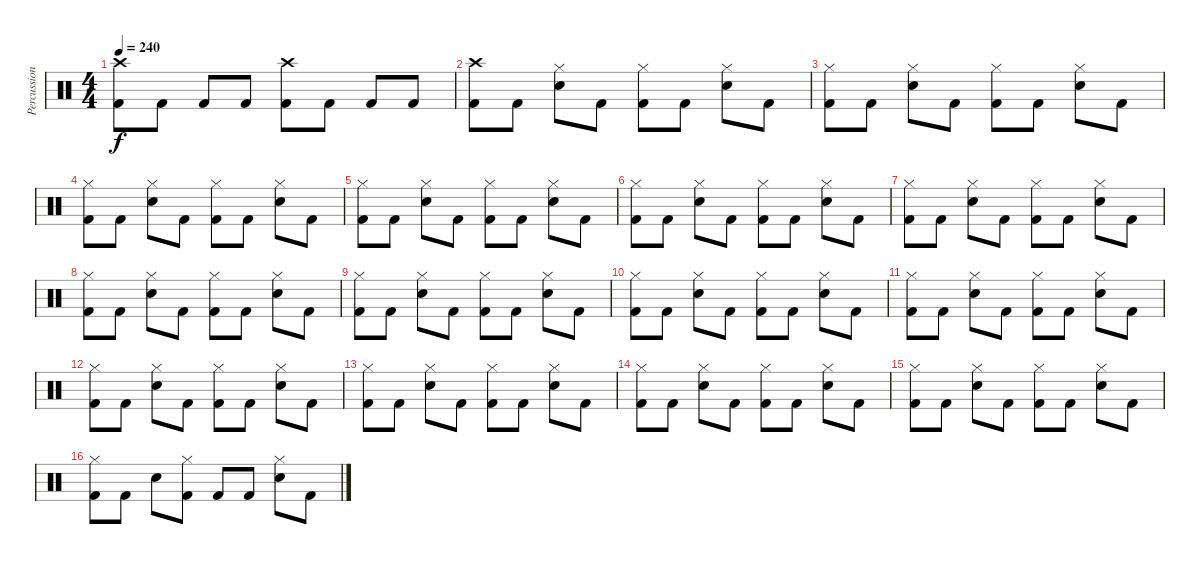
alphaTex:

\track ("Percussion" "Percussion") {instrument percussion}
\staff {score}
\articulation defaults
\ts (4 4)
\tempo 240
\clef neutral
\ks c
("Kick (hit) 2" "Crash high (hit)").8{dy f} "Kick (hit) 2".8 "Kick (hit) 2".8 "Kick (hit) 2".8 ("Kick (hit) 2" "Crash high (hit)").8 "Kick (hit) 2".8 "Kick (hit) 2".8 "Kick (hit) 2".8 |
("Kick (hit) 2" "Crash high (hit)").8 "Kick (hit) 2".8 ("Snare (hit) 2" "Hi-Hat (closed)").8 "Kick (hit) 2".8 ("Kick (hit) 2" "Hi-Hat (closed)").8 "Kick (hit) 2".8 ("Snare (hit) 2" "Hi-Hat (closed)").8 "Kick (hit) 2".8 |
("Kick (hit) 2" "Hi-Hat (closed)").8 "Kick (hit) 2".8 ("Snare (hit) 2" "Hi-Hat (closed)").8 "Kick (hit) 2".8 ("Kick (hit) 2" "Hi-Hat (closed)").8 "Kick (hit) 2".8 ("Snare (hit) 2" "Hi-Hat (closed)").8 "Kick (hit) 2".8 |
("Kick (hit) 2" "Hi-Hat (closed)").8 "Kick (hit) 2".8 ("Snare (hit) 2" "Hi-Hat (closed)").8 "Kick (hit) 2".8 ("Kick (hit) 2" "Hi-Hat (closed)").8 "Kick (hit) 2".8 ("Snare (hit) 2" "Hi-Hat (closed)").8 "Kick (hit) 2".8 |
("Kick (hit) 2" "Hi-Hat (closed)").8 "Kick (hit) 2".8 ("Snare (hit) 2" "Hi-Hat (closed)").8 "Kick (hit) 2".8 ("Kick (hit) 2" "Hi-Hat (closed)").8 "Kick (hit) 2".8 ("Snare (hit) 2" "Hi-Hat (closed)").8 "Kick (hit) 2".8 |
("Kick (hit) 2" "Hi-Hat (closed)").8 "Kick (hit) 2".8 ("Snare (hit) 2" "Hi-Hat (closed)").8 "Kick (hit) 2".8 ("Kick (hit) 2" "Hi-Hat (closed)").8 "Kick (hit) 2".8 ("Snare (hit) 2" "Hi-Hat (closed)").8 "Kick (hit) 2".8 |
("Kick (hit) 2" "Hi-Hat (closed)").8 "Kick (hit) 2".8 ("Snare (hit) 2" "Hi-Hat (closed)").8 "Kick (hit) 2".8 ("Kick (hit) 2" "Hi-Hat (closed)").8 "Kick (hit) 2".8 ("Snare (hit) 2" "Hi-Hat (closed)").8 "Kick (hit) 2".8 |
("Kick (hit) 2" "Hi-Hat (closed)").8 "Kick (hit) 2".8 ("Snare (hit) 2" "Hi-Hat (closed)").8 "Kick (hit) 2".8 ("Kick (hit) 2" "Hi-Hat (closed)").8 "Kick (hit) 2".8 ("Snare (hit) 2" "Hi-Hat (closed)").8 "Kick (hit) 2".8 |
("Kick (hit) 2" "Hi-Hat (closed)").8 "Kick (hit) 2".8 ("Snare (hit) 2" "Hi-Hat (closed)").8 "Kick (hit) 2".8 ("Kick (hit) 2" "Hi-Hat (closed)").8 "Kick (hit) 2".8 ("Snare (hit) 2" "Hi-Hat (closed)").8 "Kick (hit) 2".8 |
("Kick (hit) 2" "Hi-Hat (closed)").8 "Kick (hit) 2".8 ("Snare (hit) 2" "Hi-Hat (closed)").8 "Kick (hit) 2".8 ("Kick (hit) 2" "Hi-Hat (closed)").8 "Kick (hit) 2".8 ("Snare (hit) 2" "Hi-Hat (closed)").8 "Kick (hit) 2".8 |
("Kick (hit) 2" "Hi-Hat (closed)").8 "Kick (hit) 2".8 ("Snare (hit) 2" "Hi-Hat (closed)").8 "Kick (hit) 2".8 ("Kick (hit) 2" "Hi-Hat (closed)").8 "Kick (hit) 2".8 ("Snare (hit) 2" "Hi-Hat (closed)").8 "Kick (hit) 2".8 |
("Kick (hit) 2" "Hi-Hat (closed)").8 "Kick (hit) 2".8 ("Snare (hit) 2" "Hi-Hat (closed)").8 "Kick (hit) 2".8 ("Kick (hit) 2" "Hi-Hat (closed)").8 "Kick (hit) 2".8 ("Snare (hit) 2" "Hi-Hat (closed)").8 "Kick (hit) 2".8 |
("Kick (hit) 2" "Hi-Hat (closed)").8 "Kick (hit) 2".8 ("Snare (hit) 2" "Hi-Hat (closed)").8 "Kick (hit) 2".8 ("Kick (hit) 2" "Hi-Hat (closed)").8 "Kick (hit) 2".8 ("Snare (hit) 2" "Hi-Hat (closed)").8 "Kick (hit) 2".8 |
("Kick (hit) 2" "Hi-Hat (closed)").8 "Kick (hit) 2".8 ("Snare (hit) 2" "Hi-Hat (closed)").8 "Kick (hit) 2".8 ("Kick (hit) 2" "Hi-Hat (closed)").8 "Kick (hit) 2".8 ("Snare (hit) 2" "Hi-Hat (closed)").8 "Kick (hit) 2".8 |
("Kick (hit) 2" "Hi-Hat (closed)").8 "Kick (hit) 2".8 ("Snare (hit) 2" "Hi-Hat (closed)").8 "Kick (hit) 2".8 ("Kick (hit) 2" "Hi-Hat (closed)").8 "Kick (hit) 2".8 ("Snare (hit) 2" "Hi-Hat (closed)").8 "Kick (hit) 2".8 |
("Kick (hit) 2" "Hi-Hat (closed)").8 "Kick (hit) 2".8 "Snare (hit) 2".8 ("Kick (hit) 2" "Hi-Hat (closed)").8 "Kick (hit) 2".8 "Kick (hit) 2".8 ("Snare (hit) 2" "Hi-Hat (closed)").8 "Kick (hit) 2".8
